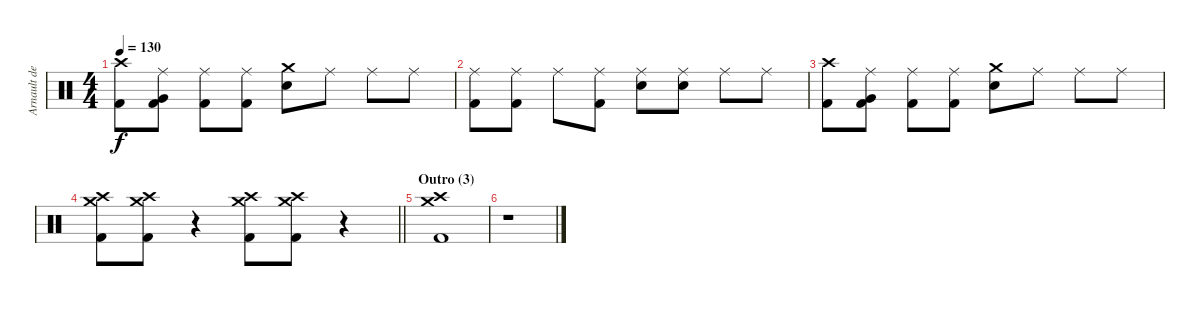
\track ("Arnault de Staël" "Arnault de") {instrument percussion}
\staff {score}
\articulation defaults
\ts (4 4)
\tempo 130
\clef neutral
\ks c
("Crash high (hit)" "Kick (hit) 2").8{dy f} ("Ride (middle)" "Very Low Tom (hit)" "Kick (hit) 2").8 ("Ride (middle)" "Kick (hit) 2").8 ("Ride (middle)" "Kick (hit) 2").8 ("Crash medium (hit)" "Electric Snare (hit)").8 "Ride (middle)".8 "Ride (middle)".8 "Ride (middle)".8 |
("Ride (middle)" "Kick (hit) 2").8 ("Ride (middle)" "Kick (hit) 2").8 "Ride (middle)".8 ("Ride (middle)" "Kick (hit) 2").8 ("Ride (middle)" "Electric Snare (hit)").8 ("Ride (middle)" "Electric Snare (hit)").8 "Ride (middle)".8 "Ride (middle)".8 |
("Crash high (hit)" "Kick (hit) 2").8 ("Ride (middle)" "Very Low Tom (hit)" "Kick (hit) 2").8 ("Ride (middle)" "Kick (hit) 2").8 ("Ride (middle)" "Kick (hit) 2").8 ("Crash medium (hit)" "Electric Snare (hit)").8 "Ride (middle)".8 "Ride (middle)".8 "Ride (middle)".8 |
\barLineRight lightlight
("Crash high (hit)" "Crash medium (hit)" "Kick (hit) 2").8 ("Crash high (hit)" "Crash medium (hit)" "Kick (hit) 2").8 r.4 ("Crash high (hit)" "Crash medium (hit)" "Kick (hit) 2").8 ("Crash high (hit)" "Crash medium (hit)" "Kick (hit) 2").8 r.4 |
\section ("" "Outro (3)")
("Crash high (hit)" "Crash medium (hit)" "Kick (hit) 2").1 |
r.1
